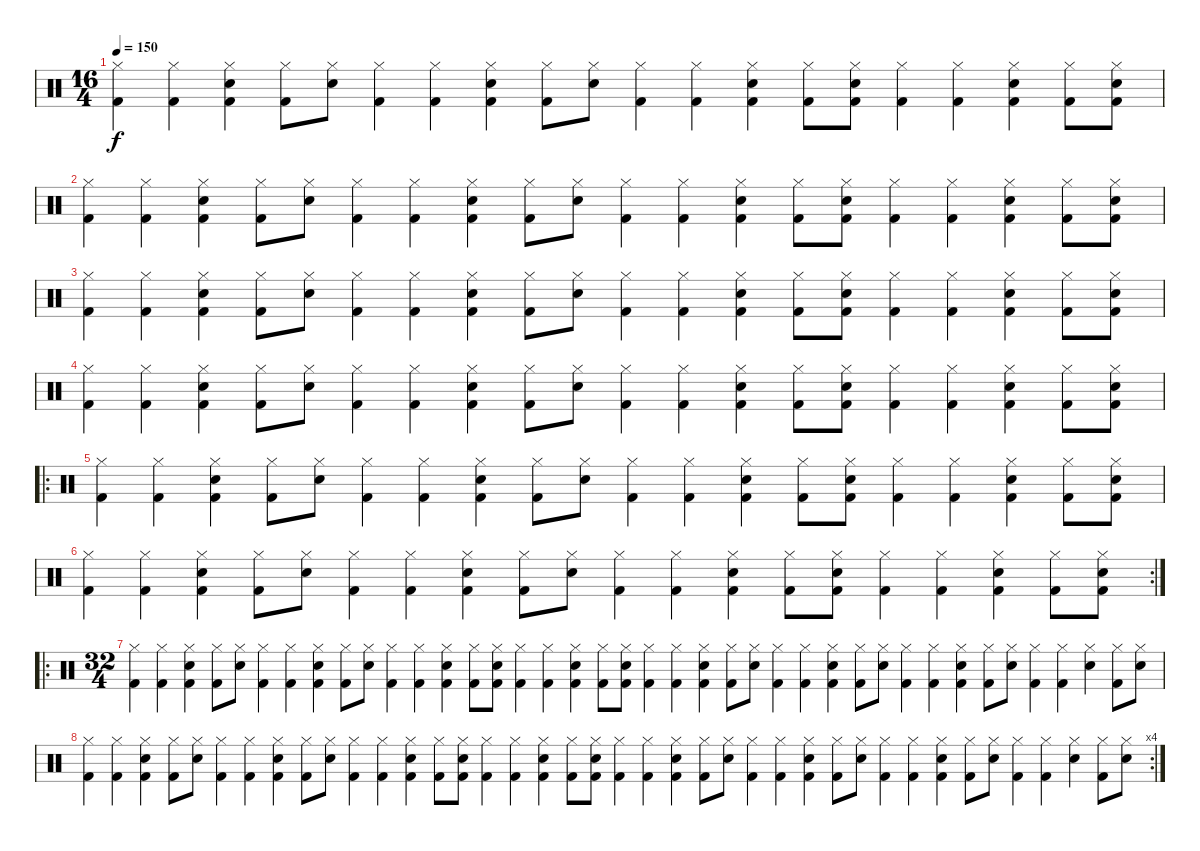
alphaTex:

\track "" {instrument percussion}
\staff {score}
\articulation defaults
\ts (16 4)
\tempo 150
\clef neutral
\ks c
("Hi-Hat (closed)" "Kick (hit) 2").4{dy f} ("Hi-Hat (closed)" "Kick (hit) 2").4 ("Hi-Hat (closed)" "Electric Snare (hit)" "Kick (hit) 2").4 ("Hi-Hat (closed)" "Kick (hit) 2").8 ("Hi-Hat (closed)" "Electric Snare (hit)").8 ("Hi-Hat (closed)" "Kick (hit) 2").4 ("Hi-Hat (closed)" "Kick (hit) 2").4 ("Hi-Hat (closed)" "Electric Snare (hit)" "Kick (hit) 2").4 ("Hi-Hat (closed)" "Kick (hit) 2").8 ("Hi-Hat (closed)" "Electric Snare (hit)").8 ("Hi-Hat (closed)" "Kick (hit) 2").4 ("Hi-Hat (closed)" "Kick (hit) 2").4 ("Hi-Hat (closed)" "Electric Snare (hit)" "Kick (hit) 2").4 ("Hi-Hat (closed)" "Kick (hit) 2").8 ("Hi-Hat (closed)" "Electric Snare (hit)" "Kick (hit) 2").8 ("Hi-Hat (closed)" "Kick (hit) 2").4 ("Hi-Hat (closed)" "Kick (hit) 2").4 ("Hi-Hat (closed)" "Electric Snare (hit)" "Kick (hit) 2").4 ("Hi-Hat (closed)" "Kick (hit) 2").8 ("Hi-Hat (closed)" "Electric Snare (hit)" "Kick (hit) 2").8 |
("Hi-Hat (closed)" "Kick (hit) 2").4 ("Hi-Hat (closed)" "Kick (hit) 2").4 ("Hi-Hat (closed)" "Electric Snare (hit)" "Kick (hit) 2").4 ("Hi-Hat (closed)" "Kick (hit) 2").8 ("Hi-Hat (closed)" "Electric Snare (hit)").8 ("Hi-Hat (closed)" "Kick (hit) 2").4 ("Hi-Hat (closed)" "Kick (hit) 2").4 ("Hi-Hat (closed)" "Electric Snare (hit)" "Kick (hit) 2").4 ("Hi-Hat (closed)" "Kick (hit) 2").8 ("Hi-Hat (closed)" "Electric Snare (hit)").8 ("Hi-Hat (closed)" "Kick (hit) 2").4 ("Hi-Hat (closed)" "Kick (hit) 2").4 ("Hi-Hat (closed)" "Electric Snare (hit)" "Kick (hit) 2").4 ("Hi-Hat (closed)" "Kick (hit) 2").8 ("Hi-Hat (closed)" "Electric Snare (hit)" "Kick (hit) 2").8 ("Hi-Hat (closed)" "Kick (hit) 2").4 ("Hi-Hat (closed)" "Kick (hit) 2").4 ("Hi-Hat (closed)" "Electric Snare (hit)" "Kick (hit) 2").4 ("Hi-Hat (closed)" "Kick (hit) 2").8 ("Hi-Hat (closed)" "Electric Snare (hit)" "Kick (hit) 2").8 |
("Hi-Hat (closed)" "Kick (hit) 2").4 ("Hi-Hat (closed)" "Kick (hit) 2").4 ("Hi-Hat (closed)" "Electric Snare (hit)" "Kick (hit) 2").4 ("Hi-Hat (closed)" "Kick (hit) 2").8 ("Hi-Hat (closed)" "Electric Snare (hit)").8 ("Hi-Hat (closed)" "Kick (hit) 2").4 ("Hi-Hat (closed)" "Kick (hit) 2").4 ("Hi-Hat (closed)" "Electric Snare (hit)" "Kick (hit) 2").4 ("Hi-Hat (closed)" "Kick (hit) 2").8 ("Hi-Hat (closed)" "Electric Snare (hit)").8 ("Hi-Hat (closed)" "Kick (hit) 2").4 ("Hi-Hat (closed)" "Kick (hit) 2").4 ("Hi-Hat (closed)" "Electric Snare (hit)" "Kick (hit) 2").4 ("Hi-Hat (closed)" "Kick (hit) 2").8 ("Hi-Hat (closed)" "Electric Snare (hit)" "Kick (hit) 2").8 ("Hi-Hat (closed)" "Kick (hit) 2").4 ("Hi-Hat (closed)" "Kick (hit) 2").4 ("Hi-Hat (closed)" "Electric Snare (hit)" "Kick (hit) 2").4 ("Hi-Hat (closed)" "Kick (hit) 2").8 ("Hi-Hat (closed)" "Electric Snare (hit)" "Kick (hit) 2").8 |
("Hi-Hat (closed)" "Kick (hit) 2").4 ("Hi-Hat (closed)" "Kick (hit) 2").4 ("Hi-Hat (closed)" "Electric Snare (hit)" "Kick (hit) 2").4 ("Hi-Hat (closed)" "Kick (hit) 2").8 ("Hi-Hat (closed)" "Electric Snare (hit)").8 ("Hi-Hat (closed)" "Kick (hit) 2").4 ("Hi-Hat (closed)" "Kick (hit) 2").4 ("Hi-Hat (closed)" "Electric Snare (hit)" "Kick (hit) 2").4 ("Hi-Hat (closed)" "Kick (hit) 2").8 ("Hi-Hat (closed)" "Electric Snare (hit)").8 ("Hi-Hat (closed)" "Kick (hit) 2").4 ("Hi-Hat (closed)" "Kick (hit) 2").4 ("Hi-Hat (closed)" "Electric Snare (hit)" "Kick (hit) 2").4 ("Hi-Hat (closed)" "Kick (hit) 2").8 ("Hi-Hat (closed)" "Electric Snare (hit)" "Kick (hit) 2").8 ("Hi-Hat (closed)" "Kick (hit) 2").4 ("Hi-Hat (closed)" "Kick (hit) 2").4 ("Hi-Hat (closed)" "Electric Snare (hit)" "Kick (hit) 2").4 ("Hi-Hat (closed)" "Kick (hit) 2").8 ("Hi-Hat (closed)" "Electric Snare (hit)" "Kick (hit) 2").8 |
\ro
("Hi-Hat (closed)" "Kick (hit) 2").4 ("Hi-Hat (closed)" "Kick (hit) 2").4 ("Hi-Hat (closed)" "Electric Snare (hit)" "Kick (hit) 2").4 ("Hi-Hat (closed)" "Kick (hit) 2").8 ("Hi-Hat (closed)" "Electric Snare (hit)").8 ("Hi-Hat (closed)" "Kick (hit) 2").4 ("Hi-Hat (closed)" "Kick (hit) 2").4 ("Hi-Hat (closed)" "Electric Snare (hit)" "Kick (hit) 2").4 ("Hi-Hat (closed)" "Kick (hit) 2").8 ("Hi-Hat (closed)" "Electric Snare (hit)").8 ("Hi-Hat (closed)" "Kick (hit) 2").4 ("Hi-Hat (closed)" "Kick (hit) 2").4 ("Hi-Hat (closed)" "Electric Snare (hit)" "Kick (hit) 2").4 ("Hi-Hat (closed)" "Kick (hit) 2").8 ("Hi-Hat (closed)" "Electric Snare (hit)" "Kick (hit) 2").8 ("Hi-Hat (closed)" "Kick (hit) 2").4 ("Hi-Hat (closed)" "Kick (hit) 2").4 ("Hi-Hat (closed)" "Electric Snare (hit)" "Kick (hit) 2").4 ("Hi-Hat (closed)" "Kick (hit) 2").8 ("Hi-Hat (closed)" "Electric Snare (hit)" "Kick (hit) 2").8 |
\rc 2
("Hi-Hat (closed)" "Kick (hit) 2").4 ("Hi-Hat (closed)" "Kick (hit) 2").4 ("Hi-Hat (closed)" "Electric Snare (hit)" "Kick (hit) 2").4 ("Hi-Hat (closed)" "Kick (hit) 2").8 ("Hi-Hat (closed)" "Electric Snare (hit)").8 ("Hi-Hat (closed)" "Kick (hit) 2").4 ("Hi-Hat (closed)" "Kick (hit) 2").4 ("Hi-Hat (closed)" "Electric Snare (hit)" "Kick (hit) 2").4 ("Hi-Hat (closed)" "Kick (hit) 2").8 ("Hi-Hat (closed)" "Electric Snare (hit)").8 ("Hi-Hat (closed)" "Kick (hit) 2").4 ("Hi-Hat (closed)" "Kick (hit) 2").4 ("Hi-Hat (closed)" "Electric Snare (hit)" "Kick (hit) 2").4 ("Hi-Hat (closed)" "Kick (hit) 2").8 ("Hi-Hat (closed)" "Electric Snare (hit)" "Kick (hit) 2").8 ("Hi-Hat (closed)" "Kick (hit) 2").4 ("Hi-Hat (closed)" "Kick (hit) 2").4 ("Hi-Hat (closed)" "Electric Snare (hit)" "Kick (hit) 2").4 ("Hi-Hat (closed)" "Kick (hit) 2").8 ("Hi-Hat (closed)" "Electric Snare (hit)" "Kick (hit) 2").8 |
\ro
\ts (32 4)
("Hi-Hat (closed)" "Kick (hit) 2").4 ("Hi-Hat (closed)" "Kick (hit) 2").4 ("Hi-Hat (closed)" "Electric Snare (hit)" "Kick (hit) 2").4 ("Hi-Hat (closed)" "Kick (hit) 2").8 ("Hi-Hat (closed)" "Electric Snare (hit)").8 ("Hi-Hat (closed)" "Kick (hit) 2").4 ("Hi-Hat (closed)" "Kick (hit) 2").4 ("Hi-Hat (closed)" "Electric Snare (hit)" "Kick (hit) 2").4 ("Hi-Hat (closed)" "Kick (hit) 2").8 ("Hi-Hat (closed)" "Electric Snare (hit)").8 ("Hi-Hat (closed)" "Kick (hit) 2").4 ("Hi-Hat (closed)" "Kick (hit) 2").4 ("Hi-Hat (closed)" "Electric Snare (hit)" "Kick (hit) 2").4 ("Hi-Hat (closed)" "Kick (hit) 2").8 ("Hi-Hat (closed)" "Electric Snare (hit)" "Kick (hit) 2").8 ("Hi-Hat (closed)" "Kick (hit) 2").4 ("Hi-Hat (closed)" "Kick (hit) 2").4 ("Hi-Hat (closed)" "Electric Snare (hit)" "Kick (hit) 2").4 ("Hi-Hat (closed)" "Kick (hit) 2").8 ("Hi-Hat (closed)" "Electric Snare (hit)" "Kick (hit) 2").8 ("Hi-Hat (closed)" "Kick (hit) 2").4 ("Hi-Hat (closed)" "Kick (hit) 2").4 ("Hi-Hat (closed)" "Electric Snare (hit)" "Kick (hit) 2").4 ("Hi-Hat (closed)" "Kick (hit) 2").8 ("Hi-Hat (closed)" "Electric Snare (hit)").8 ("Hi-Hat (closed)" "Kick (hit) 2").4 ("Hi-Hat (closed)" "Kick (hit) 2").4 ("Hi-Hat (closed)" "Electric Snare (hit)" "Kick (hit) 2").4 ("Hi-Hat (closed)" "Kick (hit) 2").8 ("Hi-Hat (closed)" "Electric Snare (hit)").8 ("Hi-Hat (closed)" "Kick (hit) 2").4 ("Hi-Hat (closed)" "Kick (hit) 2").4 ("Hi-Hat (closed)" "Electric Snare (hit)" "Kick (hit) 2").4 ("Hi-Hat (closed)" "Kick (hit) 2").8 ("Hi-Hat (closed)" "Electric Snare (hit)").8 ("Hi-Hat (closed)" "Kick (hit) 2").4 ("Hi-Hat (closed)" "Kick (hit) 2").4 ("Hi-Hat (closed)" "Electric Snare (hit)").4 ("Hi-Hat (closed)" "Kick (hit) 2").8 ("Hi-Hat (closed)" "Electric Snare (hit)").8 |
\rc 4
("Hi-Hat (closed)" "Kick (hit) 2").4 ("Hi-Hat (closed)" "Kick (hit) 2").4 ("Hi-Hat (closed)" "Electric Snare (hit)" "Kick (hit) 2").4 ("Hi-Hat (closed)" "Kick (hit) 2").8 ("Hi-Hat (closed)" "Electric Snare (hit)").8 ("Hi-Hat (closed)" "Kick (hit) 2").4 ("Hi-Hat (closed)" "Kick (hit) 2").4 ("Hi-Hat (closed)" "Electric Snare (hit)" "Kick (hit) 2").4 ("Hi-Hat (closed)" "Kick (hit) 2").8 ("Hi-Hat (closed)" "Electric Snare (hit)").8 ("Hi-Hat (closed)" "Kick (hit) 2").4 ("Hi-Hat (closed)" "Kick (hit) 2").4 ("Hi-Hat (closed)" "Electric Snare (hit)" "Kick (hit) 2").4 ("Hi-Hat (closed)" "Kick (hit) 2").8 ("Hi-Hat (closed)" "Electric Snare (hit)" "Kick (hit) 2").8 ("Hi-Hat (closed)" "Kick (hit) 2").4 ("Hi-Hat (closed)" "Kick (hit) 2").4 ("Hi-Hat (closed)" "Electric Snare (hit)" "Kick (hit) 2").4 ("Hi-Hat (closed)" "Kick (hit) 2").8 ("Hi-Hat (closed)" "Electric Snare (hit)" "Kick (hit) 2").8 ("Hi-Hat (closed)" "Kick (hit) 2").4 ("Hi-Hat (closed)" "Kick (hit) 2").4 ("Hi-Hat (closed)" "Electric Snare (hit)" "Kick (hit) 2").4 ("Hi-Hat (closed)" "Kick (hit) 2").8 ("Hi-Hat (closed)" "Electric Snare (hit)").8 ("Hi-Hat (closed)" "Kick (hit) 2").4 ("Hi-Hat (closed)" "Kick (hit) 2").4 ("Hi-Hat (closed)" "Electric Snare (hit)" "Kick (hit) 2").4 ("Hi-Hat (closed)" "Kick (hit) 2").8 ("Hi-Hat (closed)" "Electric Snare (hit)").8 ("Hi-Hat (closed)" "Kick (hit) 2").4 ("Hi-Hat (closed)" "Kick (hit) 2").4 ("Hi-Hat (closed)" "Electric Snare (hit)" "Kick (hit) 2").4 ("Hi-Hat (closed)" "Kick (hit) 2").8 ("Hi-Hat (closed)" "Electric Snare (hit)").8 ("Hi-Hat (closed)" "Kick (hit) 2").4 ("Hi-Hat (closed)" "Kick (hit) 2").4 ("Hi-Hat (closed)" "Electric Snare (hit)").4 ("Hi-Hat (closed)" "Kick (hit) 2").8 ("Hi-Hat (closed)" "Electric Snare (hit)").8
